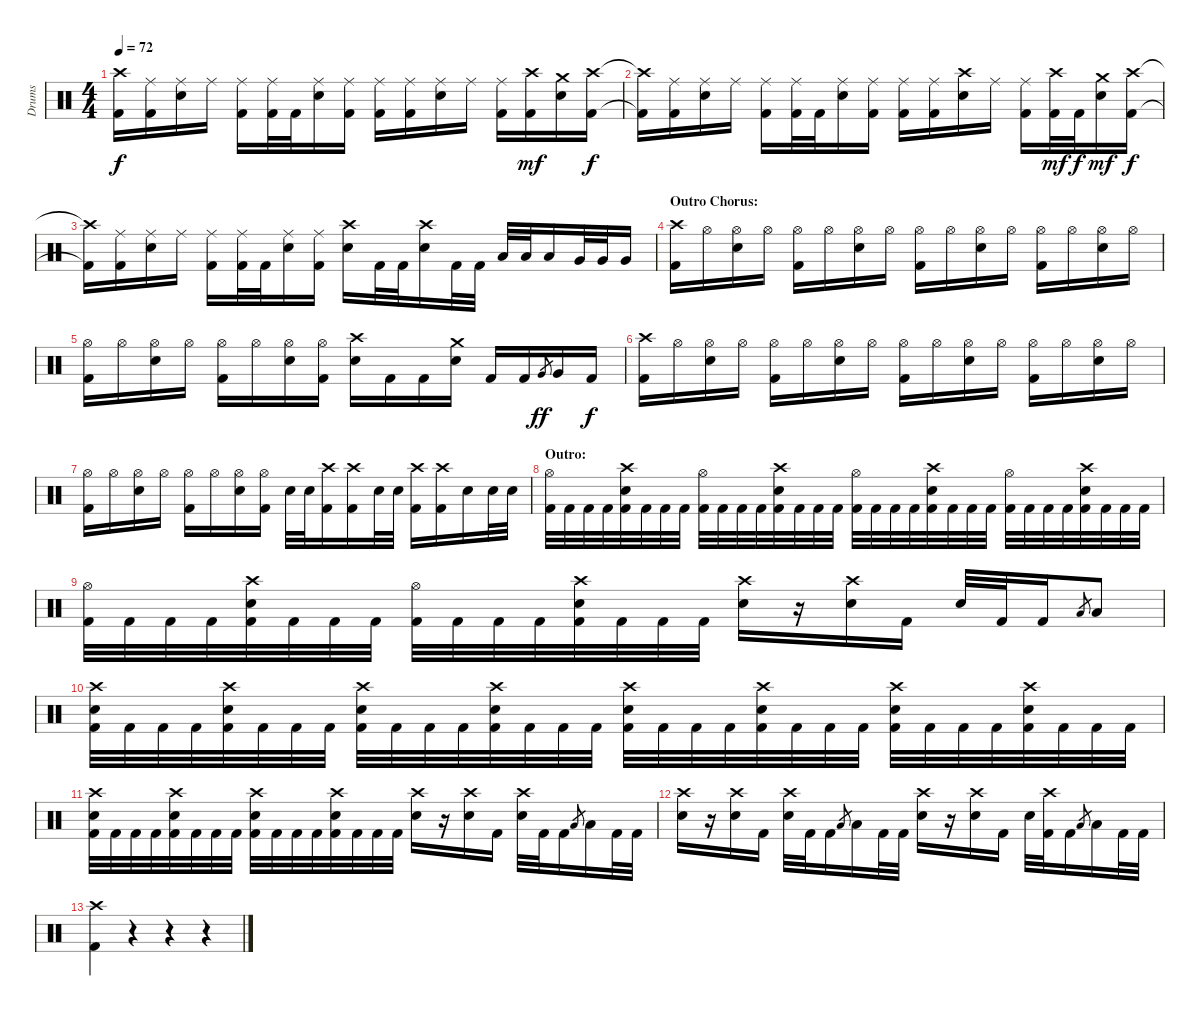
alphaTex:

\track ("Drums" "Drums") {instrument percussion}
\staff {score}
\articulation defaults
\ts (4 4)
\tempo 72
\clef neutral
\ks c
("Crash high (hit)"{t} "Kick (hit) 2"{t}).16{dy f} ("Ride (middle)" "Kick (hit) 2").16 ("Ride (middle)" "Snare (hit) 2").16 "Ride (middle)".16 ("Ride (middle)" "Kick (hit) 2").16 ("Ride (middle)" "Kick (hit) 2").32 "Kick (hit) 2".32 ("Ride (middle)" "Snare (hit) 2").16 ("Ride (middle)" "Kick (hit) 2").16 ("Ride (middle)" "Kick (hit) 2").16 ("Ride (middle)" "Kick (hit) 2").16 ("Ride (middle)" "Snare (hit) 2").16 "Ride (middle)".16 ("Ride (middle)" "Kick (hit) 2").16 ("Crash high (hit)" "Kick (hit) 2").16{dy mf} ("Crash medium (hit)" "Snare (hit) 2").16 ("Crash high (hit)" "Kick (hit) 2").16{dy f} |
("Crash high (hit)"{t} "Kick (hit) 2"{t}).16 ("Ride (middle)" "Kick (hit) 2").16 ("Ride (middle)" "Snare (hit) 2").16 "Ride (middle)".16 ("Ride (middle)" "Kick (hit) 2").16 ("Ride (middle)" "Kick (hit) 2").32 "Kick (hit) 2".32 ("Ride (middle)" "Snare (hit) 2").16 ("Ride (middle)" "Kick (hit) 2").16 ("Ride (middle)" "Kick (hit) 2").16 ("Ride (middle)" "Kick (hit) 2").16 ("Crash high (hit)" "Snare (hit) 2").16 "Ride (middle)".16 ("Ride (middle)" "Kick (hit) 2").16 ("Crash high (hit)" "Kick (hit) 2").32{dy mf} "Kick (hit) 2".32{dy f} ("Crash medium (hit)" "Snare (hit) 2").16{dy mf} ("Crash high (hit)" "Kick (hit) 2").16{dy f} |
("Crash high (hit)"{t} "Kick (hit) 2"{t}).16 ("Ride (middle)" "Kick (hit) 2").16 ("Ride (middle)" "Snare (hit) 2").16 "Ride (middle)".16 ("Ride (middle)" "Kick (hit) 2").16 ("Ride (middle)" "Kick (hit) 2").32 "Kick (hit) 2".32 ("Ride (middle)" "Snare (hit) 2").16 ("Ride (middle)" "Kick (hit) 2").16 ("Crash high (hit)" "Snare (hit) 2").16 "Kick (hit) 2".32 "Kick (hit) 2".32 ("Crash high (hit)" "Snare (hit) 2").16 "Kick (hit) 2".32 "Kick (hit) 2".32 "Low Tom (hit)".32 "Low Tom (hit)".32 "Low Tom (hit)".16 "Very Low Tom (hit)".32 "Very Low Tom (hit)".32 "Very Low Tom (hit)".16 |
\section ("" "Outro Chorus:")
("Crash high (hit)" "Kick (hit) 2").16 "Hi-Hat (open)".16 ("Hi-Hat (open)" "Snare (hit) 2").16 "Hi-Hat (open)".16 ("Hi-Hat (open)" "Kick (hit) 2").16 "Hi-Hat (open)".16 ("Hi-Hat (open)" "Snare (hit) 2").16 "Hi-Hat (open)".16 ("Hi-Hat (open)" "Kick (hit) 2").16 "Hi-Hat (open)".16 ("Hi-Hat (open)" "Snare (hit) 2").16 "Hi-Hat (open)".16 ("Hi-Hat (open)" "Kick (hit) 2").16 "Hi-Hat (open)".16 ("Hi-Hat (open)" "Snare (hit) 2").16 "Hi-Hat (open)".16 |
("Hi-Hat (open)" "Kick (hit) 2").16 "Hi-Hat (open)".16 ("Hi-Hat (open)" "Snare (hit) 2").16 "Hi-Hat (open)".16 ("Hi-Hat (open)" "Kick (hit) 2").16 "Hi-Hat (open)".16 ("Hi-Hat (open)" "Snare (hit) 2").16 ("Hi-Hat (open)" "Kick (hit) 2").16 ("Crash high (hit)" "Snare (hit) 2").16 "Kick (hit) 2".16 "Kick (hit) 2".16 ("Crash medium (hit)" "Snare (hit) 2").16 "Kick (hit) 2".16 "Kick (hit) 2".16 "Very Low Tom (hit)".8{gr dy ff} "Very Low Tom (hit)".16 "Kick (hit) 2".16{dy f} |
("Crash high (hit)" "Kick (hit) 2").16 "Hi-Hat (open)".16 ("Hi-Hat (open)" "Snare (hit) 2").16 "Hi-Hat (open)".16 ("Hi-Hat (open)" "Kick (hit) 2").16 "Hi-Hat (open)".16 ("Hi-Hat (open)" "Snare (hit) 2").16 "Hi-Hat (open)".16 ("Hi-Hat (open)" "Kick (hit) 2").16 "Hi-Hat (open)".16 ("Hi-Hat (open)" "Snare (hit) 2").16 "Hi-Hat (open)".16 ("Hi-Hat (open)" "Kick (hit) 2").16 "Hi-Hat (open)".16 ("Hi-Hat (open)" "Snare (hit) 2").16 "Hi-Hat (open)".16 |
("Hi-Hat (open)" "Kick (hit) 2").16 "Hi-Hat (open)".16 ("Hi-Hat (open)" "Snare (hit) 2").16 "Hi-Hat (open)".16 ("Hi-Hat (open)" "Kick (hit) 2").16 "Hi-Hat (open)".16 ("Hi-Hat (open)" "Snare (hit) 2").16 ("Hi-Hat (open)" "Kick (hit) 2").16 "Snare (hit) 2".32 "Snare (hit) 2".32 ("Crash high (hit)" "Kick (hit) 2").16 ("Crash high (hit)" "Kick (hit) 2").16 "Snare (hit) 2".32 "Snare (hit) 2".32 ("Crash high (hit)" "Kick (hit) 2").16 ("Crash high (hit)" "Kick (hit) 2").16 "Snare (hit) 2".16 "Snare (hit) 2".32 "Snare (hit) 2".32 |
\section ("" "Outro:")
("Hi-Hat (open)" "Kick (hit) 2").32 "Kick (hit) 2".32 "Kick (hit) 2".32 "Kick (hit) 2".32 ("Crash high (hit)" "Snare (hit) 2" "Kick (hit) 2").32 "Kick (hit) 2".32 "Kick (hit) 2".32 "Kick (hit) 2".32 ("Hi-Hat (open)" "Kick (hit) 2").32 "Kick (hit) 2".32 "Kick (hit) 2".32 "Kick (hit) 2".32 ("Crash high (hit)" "Snare (hit) 2" "Kick (hit) 2").32 "Kick (hit) 2".32 "Kick (hit) 2".32 "Kick (hit) 2".32 ("Hi-Hat (open)" "Kick (hit) 2").32 "Kick (hit) 2".32 "Kick (hit) 2".32 "Kick (hit) 2".32 ("Crash high (hit)" "Snare (hit) 2" "Kick (hit) 2").32 "Kick (hit) 2".32 "Kick (hit) 2".32 "Kick (hit) 2".32 ("Hi-Hat (open)" "Kick (hit) 2").32 "Kick (hit) 2".32 "Kick (hit) 2".32 "Kick (hit) 2".32 ("Crash high (hit)" "Snare (hit) 2" "Kick (hit) 2").32 "Kick (hit) 2".32 "Kick (hit) 2".32 "Kick (hit) 2".32 |
("Hi-Hat (open)" "Kick (hit) 2").32 "Kick (hit) 2".32 "Kick (hit) 2".32 "Kick (hit) 2".32 ("Crash high (hit)" "Snare (hit) 2" "Kick (hit) 2").32 "Kick (hit) 2".32 "Kick (hit) 2".32 "Kick (hit) 2".32 ("Hi-Hat (open)" "Kick (hit) 2").32 "Kick (hit) 2".32 "Kick (hit) 2".32 "Kick (hit) 2".32 ("Crash high (hit)" "Snare (hit) 2" "Kick (hit) 2").32 "Kick (hit) 2".32 "Kick (hit) 2".32 "Kick (hit) 2".32 ("Crash high (hit)" "Snare (hit) 2").16 r.16 ("Crash high (hit)" "Snare (hit) 2").16 "Kick (hit) 2".16 "Snare (hit) 2".32 "Kick (hit) 2".32 "Kick (hit) 2".16 "Low Tom (hit)".8{gr} "Low Tom (hit)".8 |
("Crash high (hit)" "Snare (hit) 2" "Kick (hit) 2").32 "Kick (hit) 2".32 "Kick (hit) 2".32 "Kick (hit) 2".32 ("Crash high (hit)" "Snare (hit) 2" "Kick (hit) 2").32 "Kick (hit) 2".32 "Kick (hit) 2".32 "Kick (hit) 2".32 ("Crash high (hit)" "Snare (hit) 2" "Kick (hit) 2").32 "Kick (hit) 2".32 "Kick (hit) 2".32 "Kick (hit) 2".32 ("Crash high (hit)" "Snare (hit) 2" "Kick (hit) 2").32 "Kick (hit) 2".32 "Kick (hit) 2".32 "Kick (hit) 2".32 ("Crash high (hit)" "Snare (hit) 2" "Kick (hit) 2").32 "Kick (hit) 2".32 "Kick (hit) 2".32 "Kick (hit) 2".32 ("Crash high (hit)" "Snare (hit) 2" "Kick (hit) 2").32 "Kick (hit) 2".32 "Kick (hit) 2".32 "Kick (hit) 2".32 ("Crash high (hit)" "Snare (hit) 2" "Kick (hit) 2").32 "Kick (hit) 2".32 "Kick (hit) 2".32 "Kick (hit) 2".32 ("Crash high (hit)" "Snare (hit) 2" "Kick (hit) 2").32 "Kick (hit) 2".32 "Kick (hit) 2".32 "Kick (hit) 2".32 |
("Crash high (hit)" "Snare (hit) 2" "Kick (hit) 2").32 "Kick (hit) 2".32 "Kick (hit) 2".32 "Kick (hit) 2".32 ("Crash high (hit)" "Snare (hit) 2" "Kick (hit) 2").32 "Kick (hit) 2".32 "Kick (hit) 2".32 "Kick (hit) 2".32 ("Crash high (hit)" "Snare (hit) 2" "Kick (hit) 2").32 "Kick (hit) 2".32 "Kick (hit) 2".32 "Kick (hit) 2".32 ("Crash high (hit)" "Snare (hit) 2" "Kick (hit) 2").32 "Kick (hit) 2".32 "Kick (hit) 2".32 "Kick (hit) 2".32 ("Crash high (hit)" "Snare (hit) 2").16 r.16 ("Crash high (hit)" "Snare (hit) 2").16 "Kick (hit) 2".16 ("Crash high (hit)" "Snare (hit) 2").32 "Kick (hit) 2".32 "Kick (hit) 2".16 "Low Tom (hit)".8{gr} "Low Tom (hit)".16 "Kick (hit) 2".32 "Kick (hit) 2".32 |
("Crash high (hit)" "Snare (hit) 2").16 r.16 ("Crash high (hit)" "Snare (hit) 2").16 "Kick (hit) 2".16 ("Crash high (hit)" "Snare (hit) 2").32 "Kick (hit) 2".32 "Kick (hit) 2".16 "Low Tom (hit)".8{gr} "Low Tom (hit)".16 "Kick (hit) 2".32 "Kick (hit) 2".32 ("Crash high (hit)" "Snare (hit) 2").16 r.16 ("Crash high (hit)" "Snare (hit) 2").16 "Kick (hit) 2".16 "Snare (hit) 2".32 ("Crash high (hit)" "Kick (hit) 2").32 "Kick (hit) 2".16 "Low Tom (hit)".8{gr} "Low Tom (hit)".16 "Kick (hit) 2".32 "Kick (hit) 2".32 |
("Crash high (hit)" "Kick (hit) 2").4 r.4 r.4 r.4
